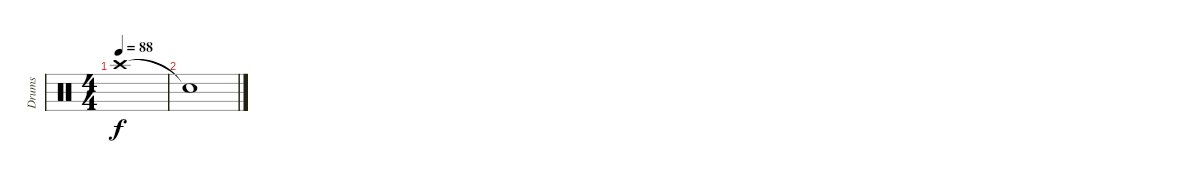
\track ("Drums" "Drums") {instrument percussion}
\staff {score}
\articulation defaults
\ts (4 4)
\tempo 88
\clef neutral
\ks c "Crash high (hit)".1{dy f}
|
"Snare (hit)"{t}.1
